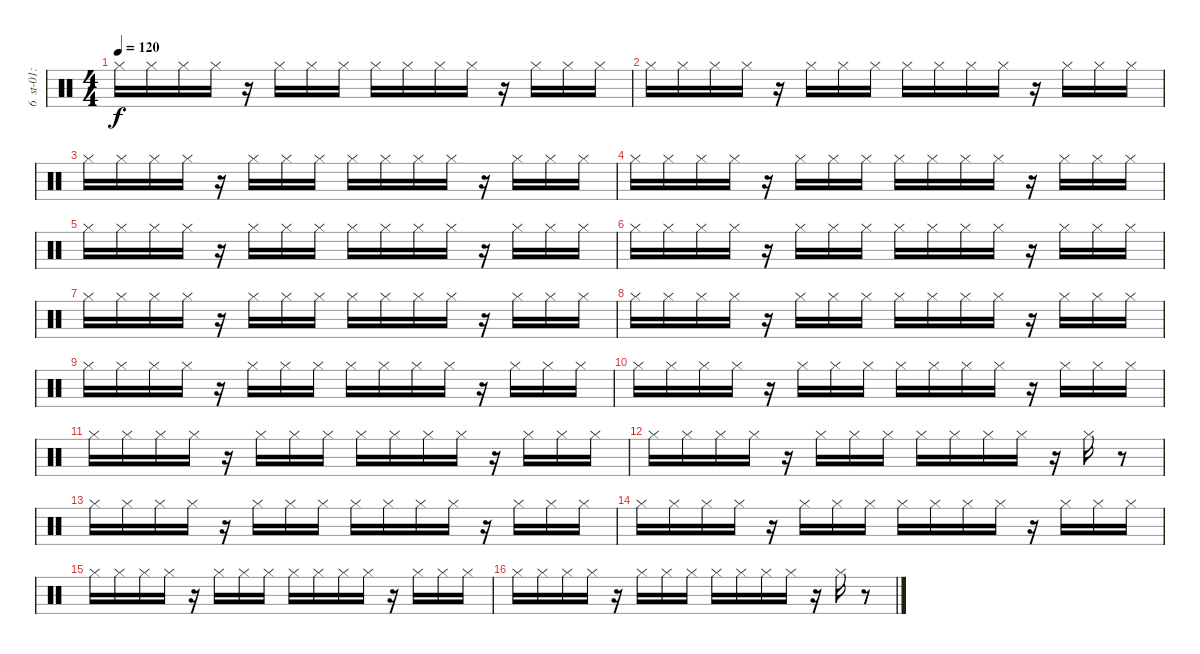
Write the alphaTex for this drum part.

\track (" 6  st-01:hihat2" " 6  st-01:") {instrument percussion}
\staff {score}
\articulation defaults
\ts (4 4)
\tempo 120
\clef neutral
\ks c "Hi-Hat (closed)".16{dy f} "Hi-Hat (closed)".16 "Hi-Hat (closed)".16 "Hi-Hat (closed)".16
r.16 "Hi-Hat (closed)".16 "Hi-Hat (closed)".16 "Hi-Hat (closed)".16 "Hi-Hat (closed)".16 "Hi-Hat (closed)".16 "Hi-Hat (closed)".16 "Hi-Hat (closed)".16 r.16 "Hi-Hat (closed)".16 "Hi-Hat (closed)".16 "Hi-Hat (closed)".16 |
"Hi-Hat (closed)".16 "Hi-Hat (closed)".16 "Hi-Hat (closed)".16 "Hi-Hat (closed)".16 r.16 "Hi-Hat (closed)".16 "Hi-Hat (closed)".16 "Hi-Hat (closed)".16 "Hi-Hat (closed)".16 "Hi-Hat (closed)".16 "Hi-Hat (closed)".16 "Hi-Hat (closed)".16 r.16 "Hi-Hat (closed)".16 "Hi-Hat (closed)".16 "Hi-Hat (closed)".16 |
"Hi-Hat (closed)".16 "Hi-Hat (closed)".16 "Hi-Hat (closed)".16 "Hi-Hat (closed)".16 r.16 "Hi-Hat (closed)".16 "Hi-Hat (closed)".16 "Hi-Hat (closed)".16 "Hi-Hat (closed)".16 "Hi-Hat (closed)".16 "Hi-Hat (closed)".16 "Hi-Hat (closed)".16 r.16 "Hi-Hat (closed)".16 "Hi-Hat (closed)".16 "Hi-Hat (closed)".16 |
"Hi-Hat (closed)".16 "Hi-Hat (closed)".16 "Hi-Hat (closed)".16 "Hi-Hat (closed)".16 r.16 "Hi-Hat (closed)".16 "Hi-Hat (closed)".16 "Hi-Hat (closed)".16 "Hi-Hat (closed)".16 "Hi-Hat (closed)".16 "Hi-Hat (closed)".16 "Hi-Hat (closed)".16 r.16 "Hi-Hat (closed)".16 "Hi-Hat (closed)".16 "Hi-Hat (closed)".16 |
"Hi-Hat (closed)".16 "Hi-Hat (closed)".16 "Hi-Hat (closed)".16 "Hi-Hat (closed)".16 r.16 "Hi-Hat (closed)".16 "Hi-Hat (closed)".16 "Hi-Hat (closed)".16 "Hi-Hat (closed)".16 "Hi-Hat (closed)".16 "Hi-Hat (closed)".16 "Hi-Hat (closed)".16 r.16 "Hi-Hat (closed)".16 "Hi-Hat (closed)".16 "Hi-Hat (closed)".16 |
"Hi-Hat (closed)".16 "Hi-Hat (closed)".16 "Hi-Hat (closed)".16 "Hi-Hat (closed)".16 r.16 "Hi-Hat (closed)".16 "Hi-Hat (closed)".16 "Hi-Hat (closed)".16 "Hi-Hat (closed)".16 "Hi-Hat (closed)".16 "Hi-Hat (closed)".16 "Hi-Hat (closed)".16 r.16 "Hi-Hat (closed)".16 "Hi-Hat (closed)".16 "Hi-Hat (closed)".16 |
"Hi-Hat (closed)".16 "Hi-Hat (closed)".16 "Hi-Hat (closed)".16 "Hi-Hat (closed)".16 r.16 "Hi-Hat (closed)".16 "Hi-Hat (closed)".16 "Hi-Hat (closed)".16 "Hi-Hat (closed)".16 "Hi-Hat (closed)".16 "Hi-Hat (closed)".16 "Hi-Hat (closed)".16 r.16 "Hi-Hat (closed)".16 "Hi-Hat (closed)".16 "Hi-Hat (closed)".16 |
"Hi-Hat (closed)".16 "Hi-Hat (closed)".16 "Hi-Hat (closed)".16 "Hi-Hat (closed)".16 r.16 "Hi-Hat (closed)".16 "Hi-Hat (closed)".16 "Hi-Hat (closed)".16 "Hi-Hat (closed)".16 "Hi-Hat (closed)".16 "Hi-Hat (closed)".16 "Hi-Hat (closed)".16 r.16 "Hi-Hat (closed)".16 "Hi-Hat (closed)".16 "Hi-Hat (closed)".16 |
"Hi-Hat (closed)".16 "Hi-Hat (closed)".16 "Hi-Hat (closed)".16 "Hi-Hat (closed)".16 r.16 "Hi-Hat (closed)".16 "Hi-Hat (closed)".16 "Hi-Hat (closed)".16 "Hi-Hat (closed)".16 "Hi-Hat (closed)".16 "Hi-Hat (closed)".16 "Hi-Hat (closed)".16 r.16 "Hi-Hat (closed)".16 "Hi-Hat (closed)".16 "Hi-Hat (closed)".16 |
"Hi-Hat (closed)".16 "Hi-Hat (closed)".16 "Hi-Hat (closed)".16 "Hi-Hat (closed)".16 r.16 "Hi-Hat (closed)".16 "Hi-Hat (closed)".16 "Hi-Hat (closed)".16 "Hi-Hat (closed)".16 "Hi-Hat (closed)".16 "Hi-Hat (closed)".16 "Hi-Hat (closed)".16 r.16 "Hi-Hat (closed)".16 "Hi-Hat (closed)".16 "Hi-Hat (closed)".16 |
"Hi-Hat (closed)".16 "Hi-Hat (closed)".16 "Hi-Hat (closed)".16 "Hi-Hat (closed)".16 r.16 "Hi-Hat (closed)".16 "Hi-Hat (closed)".16 "Hi-Hat (closed)".16 "Hi-Hat (closed)".16 "Hi-Hat (closed)".16 "Hi-Hat (closed)".16 "Hi-Hat (closed)".16 r.16 "Hi-Hat (closed)".16 "Hi-Hat (closed)".16 "Hi-Hat (closed)".16 |
"Hi-Hat (closed)".16 "Hi-Hat (closed)".16 "Hi-Hat (closed)".16 "Hi-Hat (closed)".16 r.16 "Hi-Hat (closed)".16 "Hi-Hat (closed)".16 "Hi-Hat (closed)".16 "Hi-Hat (closed)".16 "Hi-Hat (closed)".16 "Hi-Hat (closed)".16 "Hi-Hat (closed)".16 r.16 "Hi-Hat (closed)".16 r.8 |
"Hi-Hat (closed)".16 "Hi-Hat (closed)".16 "Hi-Hat (closed)".16 "Hi-Hat (closed)".16 r.16 "Hi-Hat (closed)".16 "Hi-Hat (closed)".16 "Hi-Hat (closed)".16 "Hi-Hat (closed)".16 "Hi-Hat (closed)".16 "Hi-Hat (closed)".16 "Hi-Hat (closed)".16 r.16 "Hi-Hat (closed)".16 "Hi-Hat (closed)".16 "Hi-Hat (closed)".16 |
"Hi-Hat (closed)".16 "Hi-Hat (closed)".16 "Hi-Hat (closed)".16 "Hi-Hat (closed)".16 r.16 "Hi-Hat (closed)".16 "Hi-Hat (closed)".16 "Hi-Hat (closed)".16 "Hi-Hat (closed)".16 "Hi-Hat (closed)".16 "Hi-Hat (closed)".16 "Hi-Hat (closed)".16 r.16 "Hi-Hat (closed)".16 "Hi-Hat (closed)".16 "Hi-Hat (closed)".16 |
"Hi-Hat (closed)".16 "Hi-Hat (closed)".16 "Hi-Hat (closed)".16 "Hi-Hat (closed)".16 r.16 "Hi-Hat (closed)".16 "Hi-Hat (closed)".16 "Hi-Hat (closed)".16 "Hi-Hat (closed)".16 "Hi-Hat (closed)".16 "Hi-Hat (closed)".16 "Hi-Hat (closed)".16 r.16 "Hi-Hat (closed)".16 "Hi-Hat (closed)".16 "Hi-Hat (closed)".16 |
"Hi-Hat (closed)".16 "Hi-Hat (closed)".16 "Hi-Hat (closed)".16 "Hi-Hat (closed)".16 r.16 "Hi-Hat (closed)".16 "Hi-Hat (closed)".16 "Hi-Hat (closed)".16 "Hi-Hat (closed)".16 "Hi-Hat (closed)".16 "Hi-Hat (closed)".16 "Hi-Hat (closed)".16 r.16 "Hi-Hat (closed)".16 r.8
